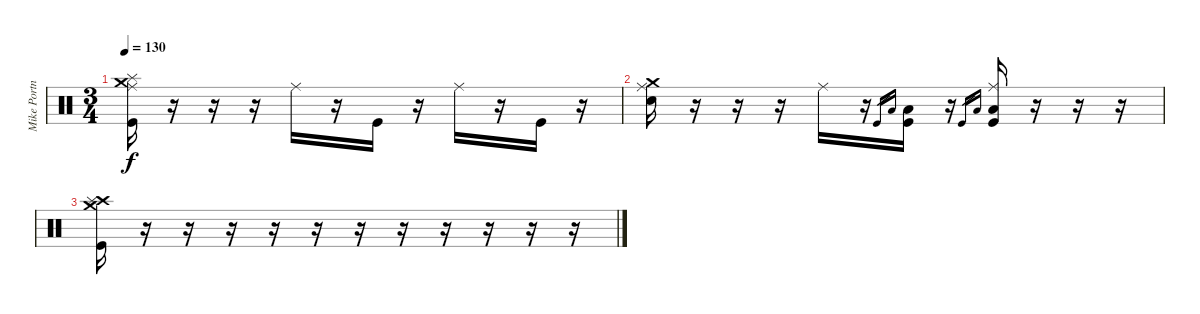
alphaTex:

\track ("Mike Portnoy" "Mike Portn") {instrument percussion}
\staff {score}
\articulation defaults
\ts (3 4)
\tempo 130
\clef neutral
\ks c
("Kick (hit)" "Crash medium (hit)" "Splash (hit)" "Ride (middle)").16{dy f} r.16 r.16 r.16 "Ride (middle)".16 r.16 "Kick (hit)".16 r.16 "Ride (middle)".16 r.16 "Kick (hit)".16 r.16 |
("Electric Snare (hit)" "Crash medium (hit)" "Ride (middle)").16 r.16 r.16 r.16 "Ride (middle)".16 r.16 "Kick (hit)".16{gr} "Low Floor Tom (hit)".16{gr} ("Kick (hit)" "Low Floor Tom (hit)").16 r.16 "Kick (hit)".16{gr} "Low Floor Tom (hit)".16{gr} ("Kick (hit)" "Low Floor Tom (hit)" "Ride (middle)").16 r.16 r.16 r.16 |
("Kick (hit)" "Crash medium (hit)" "Crash high (hit)" "Splash (hit)").16 r.16 r.16 r.16 r.16 r.16 r.16 r.16 r.16 r.16 r.16 r.16
